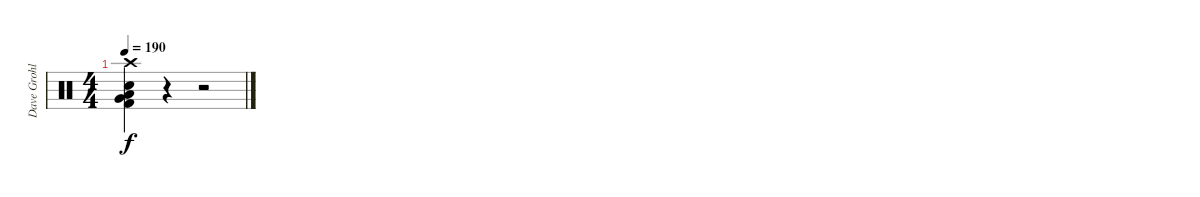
\track ("Dave Grohl (Drums)" "Dave Grohl") {instrument percussion}
\staff {score}
\articulation defaults
\ts (4 4)
\tempo 190
\clef neutral
\ks c
("Snare (hit) 2" "Crash high (hit)" "Kick (hit) 2" "Very Low Tom (hit)" "Low Tom (hit)").4{dy f} r.4 r.2
